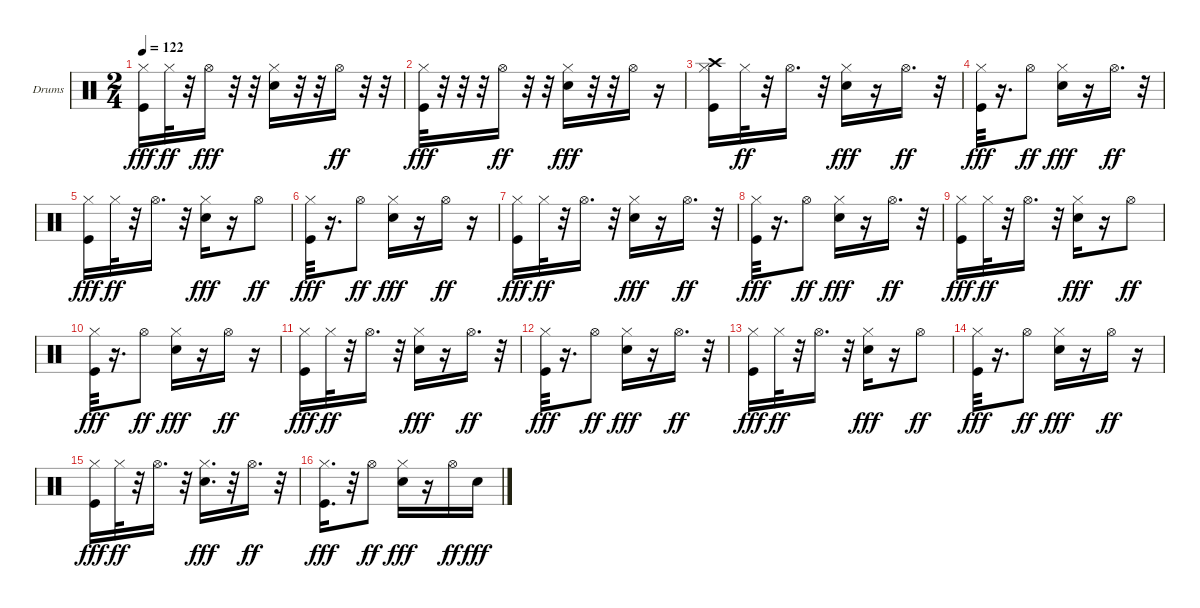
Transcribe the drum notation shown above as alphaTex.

\bracketExtendMode groupsimilarinstruments
\firstSystemTrackNameOrientation horizontal
\otherSystemsTrackNameOrientation horizontal
\track ("Ударные" "Drums") {instrument percussion}
\staff {score}
\articulation defaults
\ts (2 4)
\tempo 122
\clef neutral
\ks c
("Kick (hit)" "Hi-Hat (closed)").16{dy fff} "Hi-Hat (closed)".32{dy ff} r.32 "Hi-Hat (open)".16{dy fff} r.32 r.32 ("Snare (hit) 2" "Hi-Hat (closed)").16 r.32 r.32 "Hi-Hat (open)".16{dy ff} r.32 r.32 |
("Kick (hit)" "Hi-Hat (closed)").32{dy fff} r.32 r.32 r.32 "Hi-Hat (open)".16{dy ff} r.32 r.32 ("Snare (hit) 2" "Hi-Hat (closed)").16{dy fff} r.32 r.32 "Hi-Hat (open)".16 r.16 |
("Kick (hit)" "Crash high (hit)" "Hi-Hat (closed)").16 "Hi-Hat (closed)".32{dy ff} r.32 "Hi-Hat (open)".16{d} r.32 ("Snare (hit) 2" "Hi-Hat (closed)").16{dy fff} r.16 "Hi-Hat (open)".16{d dy ff} r.32 |
("Kick (hit)" "Hi-Hat (closed)").32{dy fff} r.16{d} "Hi-Hat (open)".8{dy ff} ("Snare (hit) 2" "Hi-Hat (closed)").16{dy fff} r.16 "Hi-Hat (open)".16{d dy ff} r.32 |
("Kick (hit)" "Hi-Hat (closed)").16{dy fff} "Hi-Hat (closed)".32{dy ff} r.32 "Hi-Hat (open)".16{d} r.32 ("Snare (hit) 2" "Hi-Hat (closed)").16{dy fff} r.16 "Hi-Hat (open)".8{dy ff} |
("Kick (hit)" "Hi-Hat (closed)").32{dy fff} r.16{d} "Hi-Hat (open)".8{dy ff} ("Snare (hit) 2" "Hi-Hat (closed)").16{dy fff} r.16 "Hi-Hat (open)".16{dy ff} r.16 |
("Kick (hit)" "Hi-Hat (closed)").16{dy fff} "Hi-Hat (closed)".32{dy ff} r.32 "Hi-Hat (open)".16{d} r.32 ("Snare (hit) 2" "Hi-Hat (closed)").16{dy fff} r.16 "Hi-Hat (open)".16{d dy ff} r.32 |
("Kick (hit)" "Hi-Hat (closed)").32{dy fff} r.16{d} "Hi-Hat (open)".8{dy ff} ("Snare (hit) 2" "Hi-Hat (closed)").16{dy fff} r.16 "Hi-Hat (open)".16{d dy ff} r.32 |
("Kick (hit)" "Hi-Hat (closed)").16{dy fff} "Hi-Hat (closed)".32{dy ff} r.32 "Hi-Hat (open)".16{d} r.32 ("Snare (hit) 2" "Hi-Hat (closed)").16{dy fff} r.16 "Hi-Hat (open)".8{dy ff} |
("Kick (hit)" "Hi-Hat (closed)").32{dy fff} r.16{d} "Hi-Hat (open)".8{dy ff} ("Snare (hit) 2" "Hi-Hat (closed)").16{dy fff} r.16 "Hi-Hat (open)".16{dy ff} r.16 |
("Kick (hit)" "Hi-Hat (closed)").16{dy fff} "Hi-Hat (closed)".32{dy ff} r.32 "Hi-Hat (open)".16{d} r.32 ("Snare (hit) 2" "Hi-Hat (closed)").16{dy fff} r.16 "Hi-Hat (open)".16{d dy ff} r.32 |
("Kick (hit)" "Hi-Hat (closed)").32{dy fff} r.16{d} "Hi-Hat (open)".8{dy ff} ("Snare (hit) 2" "Hi-Hat (closed)").16{dy fff} r.16 "Hi-Hat (open)".16{d dy ff} r.32 |
("Kick (hit)" "Hi-Hat (closed)").16{dy fff} "Hi-Hat (closed)".32{dy ff} r.32 "Hi-Hat (open)".16{d} r.32 ("Snare (hit) 2" "Hi-Hat (closed)").16{dy fff} r.16 "Hi-Hat (open)".8{dy ff} |
("Kick (hit)" "Hi-Hat (closed)").32{dy fff} r.16{d} "Hi-Hat (open)".8{dy ff} ("Snare (hit) 2" "Hi-Hat (closed)").16{dy fff} r.16 "Hi-Hat (open)".16{dy ff} r.16 |
("Kick (hit)" "Hi-Hat (closed)").16{dy fff} "Hi-Hat (closed)".32{dy ff} r.32 "Hi-Hat (open)".16{d} r.32 ("Snare (hit) 2" "Hi-Hat (closed)").16{d dy fff} r.32 "Hi-Hat (open)".16{d dy ff} r.32 |
("Kick (hit)" "Hi-Hat (closed)").16{d dy fff} r.32 "Hi-Hat (open)".8{dy ff} ("Snare (hit) 2" "Hi-Hat (closed)").16{dy fff} r.16 "Hi-Hat (open)".16{dy ff} "Snare (hit) 2".16{dy fff}
